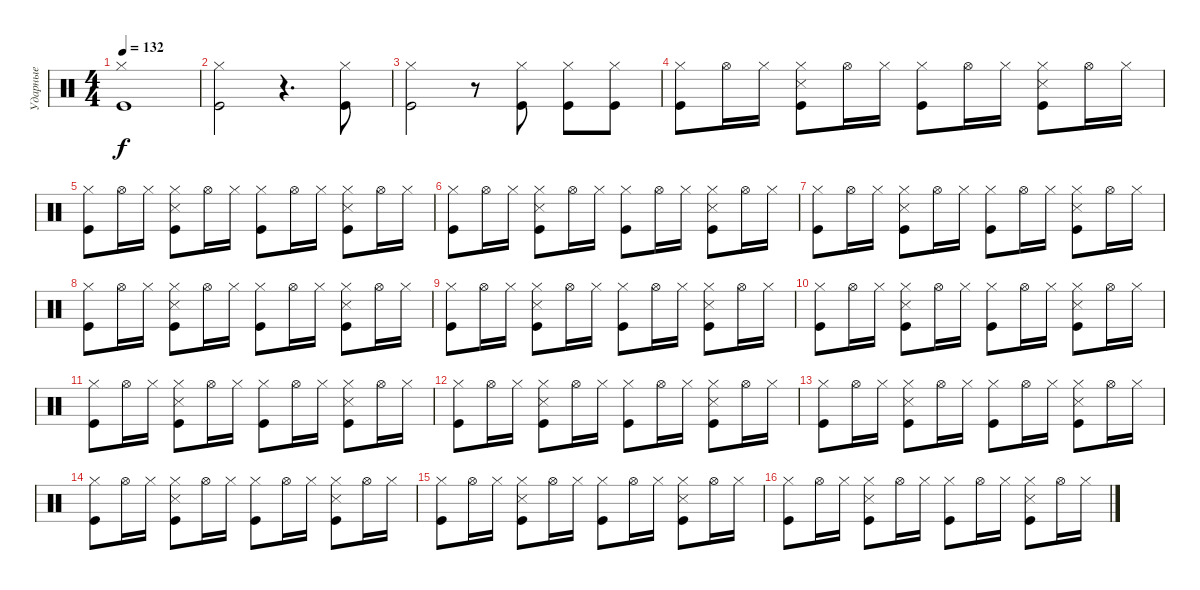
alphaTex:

\track ("Ударные" "Ударные") {instrument percussion}
\staff {score}
\articulation defaults
\ts (4 4)
\tempo 132
\clef neutral
\ks c
("Hi-Hat (closed)" "Kick (hit)").1{dy f} |
("Hi-Hat (closed)" "Kick (hit)").2 r.4{d} ("Hi-Hat (closed)" "Kick (hit)").8 |
("Hi-Hat (closed)" "Kick (hit)").2 r.8 ("Hi-Hat (closed)" "Kick (hit)").8 ("Hi-Hat (closed)" "Kick (hit)").8 ("Hi-Hat (closed)" "Kick (hit)").8 |
("Kick (hit)" "Hi-Hat (closed)").8 "Hi-Hat (open)".16 "Hi-Hat (closed)".16 ("Hi-Hat (closed)" "Kick (hit)" "Snare (side stick) 3").8 "Hi-Hat (open)".16 "Hi-Hat (closed)".16 ("Kick (hit)" "Hi-Hat (closed)").8 "Hi-Hat (open)".16 "Hi-Hat (closed)".16 ("Hi-Hat (closed)" "Kick (hit)" "Snare (side stick) 3").8 "Hi-Hat (open)".16 "Hi-Hat (closed)".16 |
("Kick (hit)" "Hi-Hat (closed)").8 "Hi-Hat (open)".16 "Hi-Hat (closed)".16 ("Hi-Hat (closed)" "Kick (hit)" "Snare (side stick) 3").8 "Hi-Hat (open)".16 "Hi-Hat (closed)".16 ("Kick (hit)" "Hi-Hat (closed)").8 "Hi-Hat (open)".16 "Hi-Hat (closed)".16 ("Hi-Hat (closed)" "Kick (hit)" "Snare (side stick) 3").8 "Hi-Hat (open)".16 "Hi-Hat (closed)".16 |
("Kick (hit)" "Hi-Hat (closed)").8 "Hi-Hat (open)".16 "Hi-Hat (closed)".16 ("Hi-Hat (closed)" "Kick (hit)" "Snare (side stick) 3").8 "Hi-Hat (open)".16 "Hi-Hat (closed)".16 ("Kick (hit)" "Hi-Hat (closed)").8 "Hi-Hat (open)".16 "Hi-Hat (closed)".16 ("Hi-Hat (closed)" "Kick (hit)" "Snare (side stick) 3").8 "Hi-Hat (open)".16 "Hi-Hat (closed)".16 |
("Kick (hit)" "Hi-Hat (closed)").8 "Hi-Hat (open)".16 "Hi-Hat (closed)".16 ("Hi-Hat (closed)" "Kick (hit)" "Snare (side stick) 3").8 "Hi-Hat (open)".16 "Hi-Hat (closed)".16 ("Kick (hit)" "Hi-Hat (closed)").8 "Hi-Hat (open)".16 "Hi-Hat (closed)".16 ("Hi-Hat (closed)" "Kick (hit)" "Snare (side stick) 3").8 "Hi-Hat (open)".16 "Hi-Hat (closed)".16 |
("Kick (hit)" "Hi-Hat (closed)").8 "Hi-Hat (open)".16 "Hi-Hat (closed)".16 ("Hi-Hat (closed)" "Kick (hit)" "Snare (side stick) 3").8 "Hi-Hat (open)".16 "Hi-Hat (closed)".16 ("Kick (hit)" "Hi-Hat (closed)").8 "Hi-Hat (open)".16 "Hi-Hat (closed)".16 ("Hi-Hat (closed)" "Kick (hit)" "Snare (side stick) 3").8 "Hi-Hat (open)".16 "Hi-Hat (closed)".16 |
("Kick (hit)" "Hi-Hat (closed)").8 "Hi-Hat (open)".16 "Hi-Hat (closed)".16 ("Hi-Hat (closed)" "Kick (hit)" "Snare (side stick) 3").8 "Hi-Hat (open)".16 "Hi-Hat (closed)".16 ("Kick (hit)" "Hi-Hat (closed)").8 "Hi-Hat (open)".16 "Hi-Hat (closed)".16 ("Hi-Hat (closed)" "Kick (hit)" "Snare (side stick) 3").8 "Hi-Hat (open)".16 "Hi-Hat (closed)".16 |
("Kick (hit)" "Hi-Hat (closed)").8 "Hi-Hat (open)".16 "Hi-Hat (closed)".16 ("Hi-Hat (closed)" "Kick (hit)" "Snare (side stick) 3").8 "Hi-Hat (open)".16 "Hi-Hat (closed)".16 ("Kick (hit)" "Hi-Hat (closed)").8 "Hi-Hat (open)".16 "Hi-Hat (closed)".16 ("Hi-Hat (closed)" "Kick (hit)" "Snare (side stick) 3").8 "Hi-Hat (open)".16 "Hi-Hat (closed)".16 |
("Kick (hit)" "Hi-Hat (closed)").8 "Hi-Hat (open)".16 "Hi-Hat (closed)".16 ("Hi-Hat (closed)" "Kick (hit)" "Snare (side stick) 3").8 "Hi-Hat (open)".16 "Hi-Hat (closed)".16 ("Kick (hit)" "Hi-Hat (closed)").8 "Hi-Hat (open)".16 "Hi-Hat (closed)".16 ("Hi-Hat (closed)" "Kick (hit)" "Snare (side stick) 3").8 "Hi-Hat (open)".16 "Hi-Hat (closed)".16 |
("Kick (hit)" "Hi-Hat (closed)").8 "Hi-Hat (open)".16 "Hi-Hat (closed)".16 ("Hi-Hat (closed)" "Kick (hit)" "Snare (side stick) 3").8 "Hi-Hat (open)".16 "Hi-Hat (closed)".16 ("Kick (hit)" "Hi-Hat (closed)").8 "Hi-Hat (open)".16 "Hi-Hat (closed)".16 ("Hi-Hat (closed)" "Kick (hit)" "Snare (side stick) 3").8 "Hi-Hat (open)".16 "Hi-Hat (closed)".16 |
("Kick (hit)" "Hi-Hat (closed)").8 "Hi-Hat (open)".16 "Hi-Hat (closed)".16 ("Hi-Hat (closed)" "Kick (hit)" "Snare (side stick) 3").8 "Hi-Hat (open)".16 "Hi-Hat (closed)".16 ("Kick (hit)" "Hi-Hat (closed)").8 "Hi-Hat (open)".16 "Hi-Hat (closed)".16 ("Hi-Hat (closed)" "Kick (hit)" "Snare (side stick) 3").8 "Hi-Hat (open)".16 "Hi-Hat (closed)".16 |
("Kick (hit)" "Hi-Hat (closed)").8 "Hi-Hat (open)".16 "Hi-Hat (closed)".16 ("Hi-Hat (closed)" "Kick (hit)" "Snare (side stick) 3").8 "Hi-Hat (open)".16 "Hi-Hat (closed)".16 ("Kick (hit)" "Hi-Hat (closed)").8 "Hi-Hat (open)".16 "Hi-Hat (closed)".16 ("Hi-Hat (closed)" "Kick (hit)" "Snare (side stick) 3").8 "Hi-Hat (open)".16 "Hi-Hat (closed)".16 |
("Kick (hit)" "Hi-Hat (closed)").8 "Hi-Hat (open)".16 "Hi-Hat (closed)".16 ("Hi-Hat (closed)" "Kick (hit)" "Snare (side stick) 3").8 "Hi-Hat (open)".16 "Hi-Hat (closed)".16 ("Kick (hit)" "Hi-Hat (closed)").8 "Hi-Hat (open)".16 "Hi-Hat (closed)".16 ("Hi-Hat (closed)" "Kick (hit)" "Snare (side stick) 3").8 "Hi-Hat (open)".16 "Hi-Hat (closed)".16 |
("Kick (hit)" "Hi-Hat (closed)").8 "Hi-Hat (open)".16 "Hi-Hat (closed)".16 ("Hi-Hat (closed)" "Kick (hit)" "Snare (side stick) 3").8 "Hi-Hat (open)".16 "Hi-Hat (closed)".16 ("Kick (hit)" "Hi-Hat (closed)").8 "Hi-Hat (open)".16 "Hi-Hat (closed)".16 ("Hi-Hat (closed)" "Kick (hit)" "Snare (side stick) 3").8 "Hi-Hat (open)".16 "Hi-Hat (closed)".16
